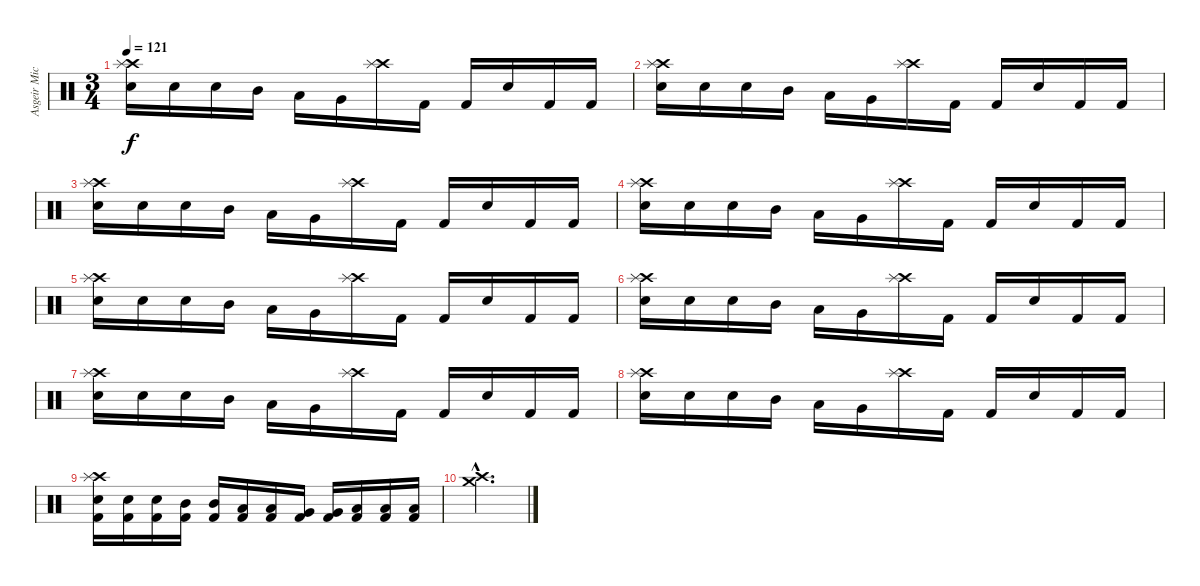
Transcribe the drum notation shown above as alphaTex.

\track ("Asgeir Mickelson" "Asgeir Mic") {instrument percussion}
\staff {score}
\articulation defaults
\ts (3 4)
\tempo 121
\clef neutral
\ks c
("Crash high (hit)" "Splash (hit)" "Electric Snare (hit)").16{dy f} "Electric Snare (hit)".16 "Electric Snare (hit)".16 "Mid Tom (hit)".16 "Low Tom (hit)".16 "Very Low Tom (hit)".16 ("Crash high (hit)" "Splash (hit)").16 "Kick (hit) 2".16 "Kick (hit) 2".16 "Electric Snare (hit)".16 "Kick (hit) 2".16 "Kick (hit) 2".16 |
("Crash high (hit)" "Splash (hit)" "Electric Snare (hit)").16 "Electric Snare (hit)".16 "Electric Snare (hit)".16 "Mid Tom (hit)".16 "Low Tom (hit)".16 "Very Low Tom (hit)".16 ("Crash high (hit)" "Splash (hit)").16 "Kick (hit) 2".16 "Kick (hit) 2".16 "Electric Snare (hit)".16 "Kick (hit) 2".16 "Kick (hit) 2".16 |
("Crash high (hit)" "Splash (hit)" "Electric Snare (hit)").16 "Electric Snare (hit)".16 "Electric Snare (hit)".16 "Mid Tom (hit)".16 "Low Tom (hit)".16 "Very Low Tom (hit)".16 ("Crash high (hit)" "Splash (hit)").16 "Kick (hit) 2".16 "Kick (hit) 2".16 "Electric Snare (hit)".16 "Kick (hit) 2".16 "Kick (hit) 2".16 |
("Crash high (hit)" "Splash (hit)" "Electric Snare (hit)").16 "Electric Snare (hit)".16 "Electric Snare (hit)".16 "Mid Tom (hit)".16 "Low Tom (hit)".16 "Very Low Tom (hit)".16 ("Crash high (hit)" "Splash (hit)").16 "Kick (hit) 2".16 "Kick (hit) 2".16 "Electric Snare (hit)".16 "Kick (hit) 2".16 "Kick (hit) 2".16 |
("Crash high (hit)" "Splash (hit)" "Electric Snare (hit)").16 "Electric Snare (hit)".16 "Electric Snare (hit)".16 "Mid Tom (hit)".16 "Low Tom (hit)".16 "Very Low Tom (hit)".16 ("Crash high (hit)" "Splash (hit)").16 "Kick (hit) 2".16 "Kick (hit) 2".16 "Electric Snare (hit)".16 "Kick (hit) 2".16 "Kick (hit) 2".16 |
("Crash high (hit)" "Splash (hit)" "Electric Snare (hit)").16 "Electric Snare (hit)".16 "Electric Snare (hit)".16 "Mid Tom (hit)".16 "Low Tom (hit)".16 "Very Low Tom (hit)".16 ("Crash high (hit)" "Splash (hit)").16 "Kick (hit) 2".16 "Kick (hit) 2".16 "Electric Snare (hit)".16 "Kick (hit) 2".16 "Kick (hit) 2".16 |
("Crash high (hit)" "Splash (hit)" "Electric Snare (hit)").16 "Electric Snare (hit)".16 "Electric Snare (hit)".16 "Mid Tom (hit)".16 "Low Tom (hit)".16 "Very Low Tom (hit)".16 ("Crash high (hit)" "Splash (hit)").16 "Kick (hit) 2".16 "Kick (hit) 2".16 "Electric Snare (hit)".16 "Kick (hit) 2".16 "Kick (hit) 2".16 |
("Crash high (hit)" "Splash (hit)" "Electric Snare (hit)").16 "Electric Snare (hit)".16 "Electric Snare (hit)".16 "Mid Tom (hit)".16 "Low Tom (hit)".16 "Very Low Tom (hit)".16 ("Crash high (hit)" "Splash (hit)").16 "Kick (hit) 2".16 "Kick (hit) 2".16 "Electric Snare (hit)".16 "Kick (hit) 2".16 "Kick (hit) 2".16 |
("Crash high (hit)" "Splash (hit)" "Electric Snare (hit)" "Kick (hit) 2").16 ("Electric Snare (hit)" "Kick (hit) 2").16 ("Electric Snare (hit)" "Kick (hit) 2").16 ("Mid Tom (hit)" "Kick (hit) 2").16 ("Mid Tom (hit)" "Kick (hit) 2").16 ("Low Tom (hit)" "Kick (hit) 2").16 ("Low Tom (hit)" "Kick (hit) 2").16 ("Very Low Tom (hit)" "Kick (hit) 2").16 ("Very Low Tom (hit)" "Kick (hit) 2").16 ("Low Floor Tom (hit)" "Kick (hit) 2").16 ("Low Floor Tom (hit)" "Kick (hit) 2").16 ("Low Floor Tom (hit)" "Kick (hit) 2").16 |
("Crash high (hit)"{hac} "Crash medium (hit)"{hac}).2{d}
